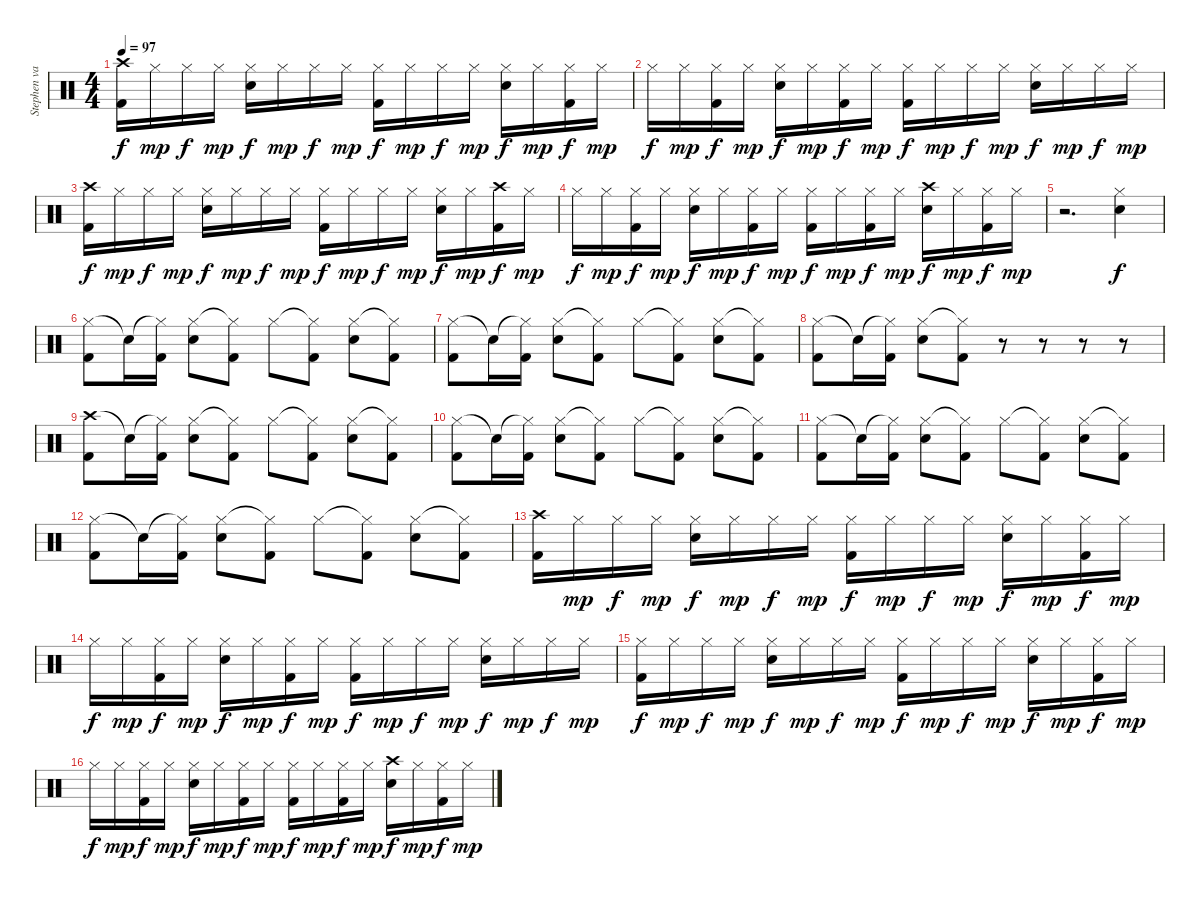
\track ("Stephen van Haestregt (Drums)" "Stephen va") {instrument percussion}
\staff {score}
\articulation defaults
\ts (4 4)
\tempo 97
\clef neutral
\ks c
("Crash high (hit)" "Kick (hit) 2").16{dy f} "Hi-Hat (closed)".16{dy mp} "Hi-Hat (closed)".16{dy f} "Hi-Hat (closed)".16{dy mp} ("Hi-Hat (closed)" "Electric Snare (hit)").16{dy f} "Hi-Hat (closed)".16{dy mp} "Hi-Hat (closed)".16{dy f} "Hi-Hat (closed)".16{dy mp} ("Hi-Hat (closed)" "Kick (hit) 2").16{dy f} "Hi-Hat (closed)".16{dy mp} "Hi-Hat (closed)".16{dy f} "Hi-Hat (closed)".16{dy mp} ("Hi-Hat (closed)" "Electric Snare (hit)").16{dy f} "Hi-Hat (closed)".16{dy mp} ("Hi-Hat (closed)" "Kick (hit) 2").16{dy f} "Hi-Hat (closed)".16{dy mp} |
"Hi-Hat (closed)".16{dy f} "Hi-Hat (closed)".16{dy mp} ("Hi-Hat (closed)" "Kick (hit) 2").16{dy f} "Hi-Hat (closed)".16{dy mp} ("Hi-Hat (closed)" "Electric Snare (hit)").16{dy f} "Hi-Hat (closed)".16{dy mp} ("Hi-Hat (closed)" "Kick (hit) 2").16{dy f} "Hi-Hat (closed)".16{dy mp} ("Hi-Hat (closed)" "Kick (hit) 2").16{dy f} "Hi-Hat (closed)".16{dy mp} "Hi-Hat (closed)".16{dy f} "Hi-Hat (closed)".16{dy mp} ("Hi-Hat (closed)" "Electric Snare (hit)").16{dy f} "Hi-Hat (closed)".16{dy mp} "Hi-Hat (closed)".16{dy f} "Hi-Hat (closed)".16{dy mp} |
("Crash high (hit)" "Kick (hit) 2").16{dy f} "Hi-Hat (closed)".16{dy mp} "Hi-Hat (closed)".16{dy f} "Hi-Hat (closed)".16{dy mp} ("Hi-Hat (closed)" "Electric Snare (hit)").16{dy f} "Hi-Hat (closed)".16{dy mp} "Hi-Hat (closed)".16{dy f} "Hi-Hat (closed)".16{dy mp} ("Hi-Hat (closed)" "Kick (hit) 2").16{dy f} "Hi-Hat (closed)".16{dy mp} "Hi-Hat (closed)".16{dy f} "Hi-Hat (closed)".16{dy mp} ("Hi-Hat (closed)" "Electric Snare (hit)").16{dy f} "Hi-Hat (closed)".16{dy mp} ("Crash high (hit)" "Kick (hit) 2").16{dy f} "Hi-Hat (closed)".16{dy mp} |
"Hi-Hat (closed)".16{dy f} "Hi-Hat (closed)".16{dy mp} ("Hi-Hat (closed)" "Kick (hit) 2").16{dy f} "Hi-Hat (closed)".16{dy mp} ("Hi-Hat (closed)" "Electric Snare (hit)").16{dy f} "Hi-Hat (closed)".16{dy mp} ("Hi-Hat (closed)" "Kick (hit) 2").16{dy f} "Hi-Hat (closed)".16{dy mp} ("Hi-Hat (closed)" "Kick (hit) 2").16{dy f} "Hi-Hat (closed)".16{dy mp} ("Hi-Hat (closed)" "Kick (hit) 2").16{dy f} "Hi-Hat (closed)".16{dy mp} ("Crash high (hit)" "Electric Snare (hit)").16{dy f} "Hi-Hat (closed)".16{dy mp} ("Hi-Hat (closed)" "Kick (hit) 2").16{dy f} "Hi-Hat (closed)".16{dy mp} |
r.2{d} ("Hi-Hat (closed)" "Electric Snare (hit)").4{dy f} |
("Hi-Hat (closed)" "Kick (hit) 2").8 "Snare (hit)"{t}.16 ("Hi-Hat (closed)"{t} "Kick (hit) 2").16 ("Hi-Hat (closed)" "Electric Snare (hit)").8 ("Hi-Hat (closed)"{t} "Kick (hit) 2").8 "Hi-Hat (closed)".8 ("Hi-Hat (closed)"{t} "Kick (hit) 2").8 ("Hi-Hat (closed)" "Electric Snare (hit)").8 ("Hi-Hat (closed)"{t} "Kick (hit) 2").8 |
("Hi-Hat (closed)" "Kick (hit) 2").8 "Snare (hit)"{t}.16 ("Hi-Hat (closed)"{t} "Kick (hit) 2").16 ("Hi-Hat (closed)" "Electric Snare (hit)").8 ("Hi-Hat (closed)"{t} "Kick (hit) 2").8 "Hi-Hat (closed)".8 ("Hi-Hat (closed)"{t} "Kick (hit) 2").8 ("Hi-Hat (closed)" "Electric Snare (hit)").8 ("Hi-Hat (closed)"{t} "Kick (hit) 2").8 |
("Hi-Hat (closed)" "Kick (hit) 2").8 "Snare (hit)"{t}.16 ("Hi-Hat (closed)"{t} "Kick (hit) 2").16 ("Hi-Hat (closed)" "Electric Snare (hit)").8 ("Hi-Hat (closed)"{t} "Kick (hit) 2").8 r.8 r.8 r.8 r.8 |
("Crash high (hit)" "Kick (hit) 2").8 "Snare (hit)"{t}.16 ("Hi-Hat (closed)"{t} "Kick (hit) 2").16 ("Hi-Hat (closed)" "Electric Snare (hit)").8 ("Hi-Hat (closed)"{t} "Kick (hit) 2").8 "Hi-Hat (closed)".8 ("Hi-Hat (closed)"{t} "Kick (hit) 2").8 ("Hi-Hat (closed)" "Electric Snare (hit)").8 ("Hi-Hat (closed)"{t} "Kick (hit) 2").8 |
("Hi-Hat (closed)" "Kick (hit) 2").8 "Snare (hit)"{t}.16 ("Hi-Hat (closed)"{t} "Kick (hit) 2").16 ("Hi-Hat (closed)" "Electric Snare (hit)").8 ("Hi-Hat (closed)"{t} "Kick (hit) 2").8 "Hi-Hat (closed)".8 ("Hi-Hat (closed)"{t} "Kick (hit) 2").8 ("Hi-Hat (closed)" "Electric Snare (hit)").8 ("Hi-Hat (closed)"{t} "Kick (hit) 2").8 |
("Hi-Hat (closed)" "Kick (hit) 2").8 "Snare (hit)"{t}.16 ("Hi-Hat (closed)"{t} "Kick (hit) 2").16 ("Hi-Hat (closed)" "Electric Snare (hit)").8 ("Hi-Hat (closed)"{t} "Kick (hit) 2").8 "Hi-Hat (closed)".8 ("Hi-Hat (closed)"{t} "Kick (hit) 2").8 ("Hi-Hat (closed)" "Electric Snare (hit)").8 ("Hi-Hat (closed)"{t} "Kick (hit) 2").8 |
("Hi-Hat (closed)" "Kick (hit) 2").8 "Snare (hit)"{t}.16 ("Hi-Hat (closed)"{t} "Kick (hit) 2").16 ("Hi-Hat (closed)" "Electric Snare (hit)").8 ("Hi-Hat (closed)"{t} "Kick (hit) 2").8 "Hi-Hat (closed)".8 ("Hi-Hat (closed)"{t} "Kick (hit) 2").8 ("Hi-Hat (closed)" "Electric Snare (hit)").8 ("Hi-Hat (closed)"{t} "Kick (hit) 2").8 |
("Crash high (hit)" "Kick (hit) 2").16 "Hi-Hat (closed)".16{dy mp} "Hi-Hat (closed)".16{dy f} "Hi-Hat (closed)".16{dy mp} ("Hi-Hat (closed)" "Electric Snare (hit)").16{dy f} "Hi-Hat (closed)".16{dy mp} "Hi-Hat (closed)".16{dy f} "Hi-Hat (closed)".16{dy mp} ("Hi-Hat (closed)" "Kick (hit) 2").16{dy f} "Hi-Hat (closed)".16{dy mp} "Hi-Hat (closed)".16{dy f} "Hi-Hat (closed)".16{dy mp} ("Hi-Hat (closed)" "Electric Snare (hit)").16{dy f} "Hi-Hat (closed)".16{dy mp} ("Hi-Hat (closed)" "Kick (hit) 2").16{dy f} "Hi-Hat (closed)".16{dy mp} |
"Hi-Hat (closed)".16{dy f} "Hi-Hat (closed)".16{dy mp} ("Hi-Hat (closed)" "Kick (hit) 2").16{dy f} "Hi-Hat (closed)".16{dy mp} ("Hi-Hat (closed)" "Electric Snare (hit)").16{dy f} "Hi-Hat (closed)".16{dy mp} ("Hi-Hat (closed)" "Kick (hit) 2").16{dy f} "Hi-Hat (closed)".16{dy mp} ("Hi-Hat (closed)" "Kick (hit) 2").16{dy f} "Hi-Hat (closed)".16{dy mp} "Hi-Hat (closed)".16{dy f} "Hi-Hat (closed)".16{dy mp} ("Hi-Hat (closed)" "Electric Snare (hit)").16{dy f} "Hi-Hat (closed)".16{dy mp} "Hi-Hat (closed)".16{dy f} "Hi-Hat (closed)".16{dy mp} |
("Hi-Hat (closed)" "Kick (hit) 2").16{dy f} "Hi-Hat (closed)".16{dy mp} "Hi-Hat (closed)".16{dy f} "Hi-Hat (closed)".16{dy mp} ("Hi-Hat (closed)" "Electric Snare (hit)").16{dy f} "Hi-Hat (closed)".16{dy mp} "Hi-Hat (closed)".16{dy f} "Hi-Hat (closed)".16{dy mp} ("Hi-Hat (closed)" "Kick (hit) 2").16{dy f} "Hi-Hat (closed)".16{dy mp} "Hi-Hat (closed)".16{dy f} "Hi-Hat (closed)".16{dy mp} ("Hi-Hat (closed)" "Electric Snare (hit)").16{dy f} "Hi-Hat (closed)".16{dy mp} ("Hi-Hat (closed)" "Kick (hit) 2").16{dy f} "Hi-Hat (closed)".16{dy mp} |
"Hi-Hat (closed)".16{dy f} "Hi-Hat (closed)".16{dy mp} ("Hi-Hat (closed)" "Kick (hit) 2").16{dy f} "Hi-Hat (closed)".16{dy mp} ("Hi-Hat (closed)" "Electric Snare (hit)").16{dy f} "Hi-Hat (closed)".16{dy mp} ("Hi-Hat (closed)" "Kick (hit) 2").16{dy f} "Hi-Hat (closed)".16{dy mp} ("Hi-Hat (closed)" "Kick (hit) 2").16{dy f} "Hi-Hat (closed)".16{dy mp} ("Hi-Hat (closed)" "Kick (hit) 2").16{dy f} "Hi-Hat (closed)".16{dy mp} ("Crash high (hit)" "Electric Snare (hit)").16{dy f} "Hi-Hat (closed)".16{dy mp} ("Hi-Hat (closed)" "Kick (hit) 2").16{dy f} "Hi-Hat (closed)".16{dy mp}
